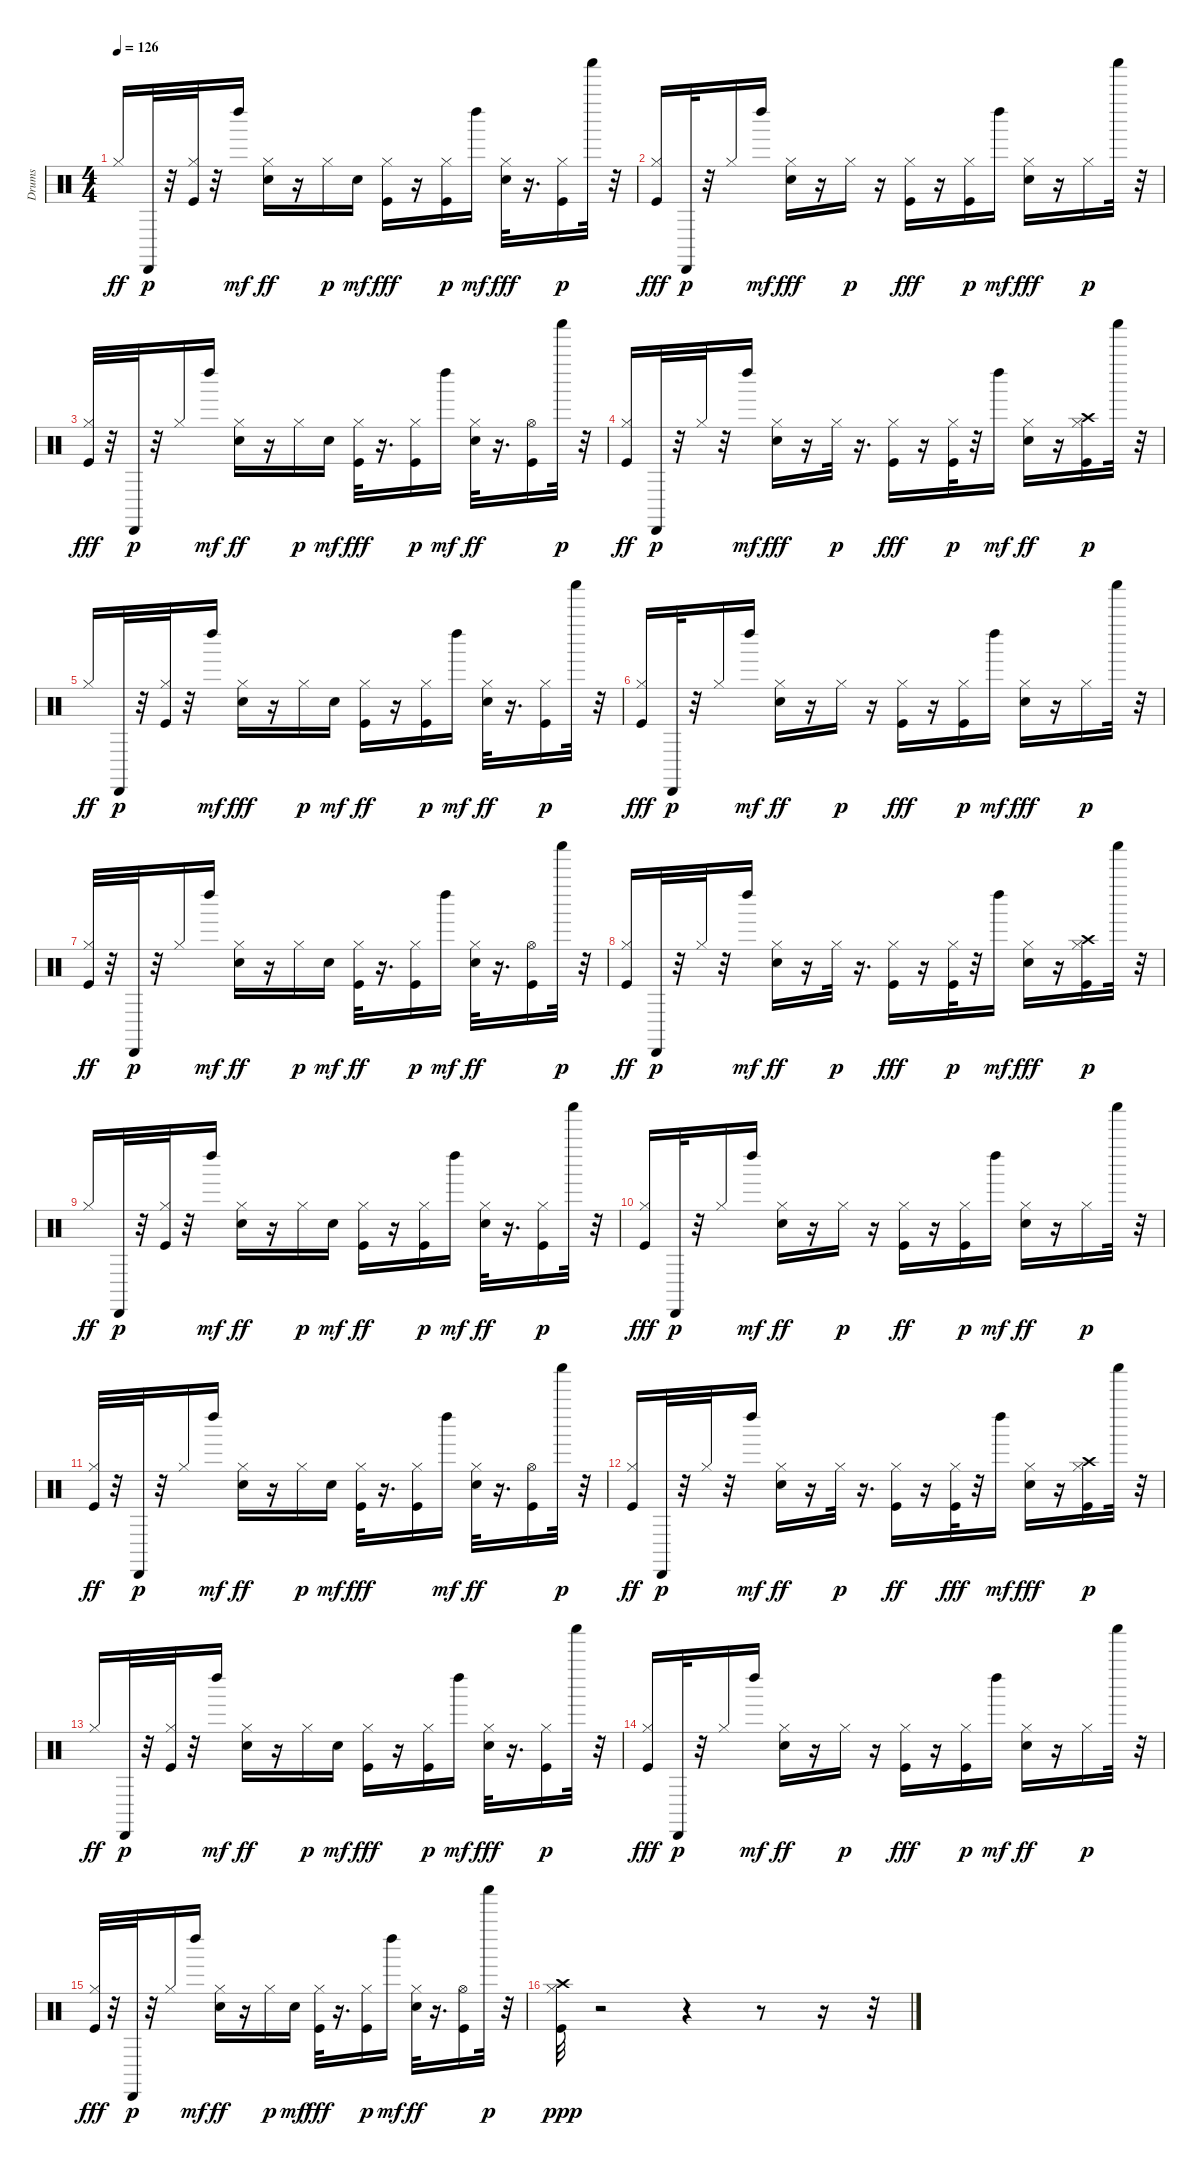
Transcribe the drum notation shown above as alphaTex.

\track ("Drums" "Drums") {instrument percussion}
\staff {score}
\articulation defaults
\ts (4 4)
\tempo 126
\clef neutral
\ks c "Hi-Hat (closed)".16{dy ff} "Cabasa (hit)".32{dy p}
r.32 ("Kick (hit)" "Hi-Hat (closed)").32 r.32 "Left Maraca (hit)".16{dy mf} ("Electric Snare (hit)" "Hi-Hat (closed)").16{dy ff} r.16 "Hi-Hat (closed)".16{dy p} "Electric Snare (hit)".16{dy mf} ("Hi-Hat (closed)" "Kick (hit)").16{dy fff} r.16 ("Kick (hit)" "Hi-Hat (closed)").16{dy p} "Left Maraca (hit)".16{dy mf} ("Hi-Hat (closed)" "Electric Snare (hit)").32{dy fff} r.16{d} ("Kick (hit)" "Hi-Hat (closed)").16{dy p} "Shaker (hit)".32 r.32 |
("Hi-Hat (closed)" "Kick (hit)").16{dy fff} "Cabasa (hit)".32{dy p} r.32 "Hi-Hat (closed)".16 "Left Maraca (hit)".16{dy mf} ("Hi-Hat (closed)" "Electric Snare (hit)").16{dy fff} r.16 "Hi-Hat (closed)".16{dy p} r.16 ("Hi-Hat (closed)" "Kick (hit)").16{dy fff} r.16 ("Kick (hit)" "Hi-Hat (closed)").16{dy p} "Left Maraca (hit)".16{dy mf} ("Hi-Hat (closed)" "Electric Snare (hit)").16{dy fff} r.16 "Hi-Hat (closed)".16{dy p} "Shaker (hit)".32 r.32 |
("Hi-Hat (closed)" "Kick (hit)").32{dy fff} r.32 "Cabasa (hit)".32{dy p} r.32 "Hi-Hat (closed)".16 "Left Maraca (hit)".16{dy mf} ("Electric Snare (hit)" "Hi-Hat (closed)").16{dy ff} r.16 "Hi-Hat (closed)".16{dy p} "Electric Snare (hit)".16{dy mf} ("Hi-Hat (closed)" "Kick (hit)").32{dy fff} r.16{d} ("Kick (hit)" "Hi-Hat (closed)").16{dy p} "Left Maraca (hit)".16{dy mf} ("Electric Snare (hit)" "Hi-Hat (closed)").32{dy ff} r.16{d} ("Kick (hit)" "Hi-Hat (open)").16 "Shaker (hit)".32{dy p} r.32 |
("Kick (hit)" "Hi-Hat (closed)").16{dy ff} "Cabasa (hit)".32{dy p} r.32 "Hi-Hat (closed)".32 r.32 "Left Maraca (hit)".16{dy mf} ("Hi-Hat (closed)" "Electric Snare (hit)").16{dy fff} r.16 "Hi-Hat (closed)".32{dy p} r.16{d} ("Hi-Hat (closed)" "Kick (hit)").16{dy fff} r.16 ("Kick (hit)" "Hi-Hat (closed)").32{dy p} r.32 "Left Maraca (hit)".16{dy mf} ("Electric Snare (hit)" "Hi-Hat (closed)").16{dy ff} r.16 ("Kick (hit)" "Crash high (hit)" "Hi-Hat (closed)").16{dy p} "Shaker (hit)".32 r.32 |
"Hi-Hat (closed)".16{dy ff} "Cabasa (hit)".32{dy p} r.32 ("Kick (hit)" "Hi-Hat (closed)").32 r.32 "Left Maraca (hit)".16{dy mf} ("Hi-Hat (closed)" "Electric Snare (hit)").16{dy fff} r.16 "Hi-Hat (closed)".16{dy p} "Electric Snare (hit)".16{dy mf} ("Kick (hit)" "Hi-Hat (closed)").16{dy ff} r.16 ("Kick (hit)" "Hi-Hat (closed)").16{dy p} "Left Maraca (hit)".16{dy mf} ("Electric Snare (hit)" "Hi-Hat (closed)").32{dy ff} r.16{d} ("Kick (hit)" "Hi-Hat (closed)").16{dy p} "Shaker (hit)".32 r.32 |
("Hi-Hat (closed)" "Kick (hit)").16{dy fff} "Cabasa (hit)".32{dy p} r.32 "Hi-Hat (closed)".16 "Left Maraca (hit)".16{dy mf} ("Electric Snare (hit)" "Hi-Hat (closed)").16{dy ff} r.16 "Hi-Hat (closed)".16{dy p} r.16 ("Hi-Hat (closed)" "Kick (hit)").16{dy fff} r.16 ("Kick (hit)" "Hi-Hat (closed)").16{dy p} "Left Maraca (hit)".16{dy mf} ("Hi-Hat (closed)" "Electric Snare (hit)").16{dy fff} r.16 "Hi-Hat (closed)".16{dy p} "Shaker (hit)".32 r.32 |
("Kick (hit)" "Hi-Hat (closed)").32{dy ff} r.32 "Cabasa (hit)".32{dy p} r.32 "Hi-Hat (closed)".16 "Left Maraca (hit)".16{dy mf} ("Electric Snare (hit)" "Hi-Hat (closed)").16{dy ff} r.16 "Hi-Hat (closed)".16{dy p} "Electric Snare (hit)".16{dy mf} ("Kick (hit)" "Hi-Hat (closed)").32{dy ff} r.16{d} ("Kick (hit)" "Hi-Hat (closed)").16{dy p} "Left Maraca (hit)".16{dy mf} ("Electric Snare (hit)" "Hi-Hat (closed)").32{dy ff} r.16{d} ("Kick (hit)" "Hi-Hat (open)").16 "Shaker (hit)".32{dy p} r.32 |
("Kick (hit)" "Hi-Hat (closed)").16{dy ff} "Cabasa (hit)".32{dy p} r.32 "Hi-Hat (closed)".32 r.32 "Left Maraca (hit)".16{dy mf} ("Electric Snare (hit)" "Hi-Hat (closed)").16{dy ff} r.16 "Hi-Hat (closed)".32{dy p} r.16{d} ("Hi-Hat (closed)" "Kick (hit)").16{dy fff} r.16 ("Kick (hit)" "Hi-Hat (closed)").32{dy p} r.32 "Left Maraca (hit)".16{dy mf} ("Hi-Hat (closed)" "Electric Snare (hit)").16{dy fff} r.16 ("Kick (hit)" "Crash high (hit)" "Hi-Hat (closed)").16{dy p} "Shaker (hit)".32 r.32 |
"Hi-Hat (closed)".16{dy ff} "Cabasa (hit)".32{dy p} r.32 ("Kick (hit)" "Hi-Hat (closed)").32 r.32 "Left Maraca (hit)".16{dy mf} ("Electric Snare (hit)" "Hi-Hat (closed)").16{dy ff} r.16 "Hi-Hat (closed)".16{dy p} "Electric Snare (hit)".16{dy mf} ("Kick (hit)" "Hi-Hat (closed)").16{dy ff} r.16 ("Kick (hit)" "Hi-Hat (closed)").16{dy p} "Left Maraca (hit)".16{dy mf} ("Electric Snare (hit)" "Hi-Hat (closed)").32{dy ff} r.16{d} ("Kick (hit)" "Hi-Hat (closed)").16{dy p} "Shaker (hit)".32 r.32 |
("Hi-Hat (closed)" "Kick (hit)").16{dy fff} "Cabasa (hit)".32{dy p} r.32 "Hi-Hat (closed)".16 "Left Maraca (hit)".16{dy mf} ("Electric Snare (hit)" "Hi-Hat (closed)").16{dy ff} r.16 "Hi-Hat (closed)".16{dy p} r.16 ("Kick (hit)" "Hi-Hat (closed)").16{dy ff} r.16 ("Kick (hit)" "Hi-Hat (closed)").16{dy p} "Left Maraca (hit)".16{dy mf} ("Electric Snare (hit)" "Hi-Hat (closed)").16{dy ff} r.16 "Hi-Hat (closed)".16{dy p} "Shaker (hit)".32 r.32 |
("Kick (hit)" "Hi-Hat (closed)").32{dy ff} r.32 "Cabasa (hit)".32{dy p} r.32 "Hi-Hat (closed)".16 "Left Maraca (hit)".16{dy mf} ("Electric Snare (hit)" "Hi-Hat (closed)").16{dy ff} r.16 "Hi-Hat (closed)".16{dy p} "Electric Snare (hit)".16{dy mf} ("Hi-Hat (closed)" "Kick (hit)").32{dy fff} r.16{d} ("Hi-Hat (closed)" "Kick (hit)").16 "Left Maraca (hit)".16{dy mf} ("Electric Snare (hit)" "Hi-Hat (closed)").32{dy ff} r.16{d} ("Kick (hit)" "Hi-Hat (open)").16 "Shaker (hit)".32{dy p} r.32 |
("Kick (hit)" "Hi-Hat (closed)").16{dy ff} "Cabasa (hit)".32{dy p} r.32 "Hi-Hat (closed)".32 r.32 "Left Maraca (hit)".16{dy mf} ("Electric Snare (hit)" "Hi-Hat (closed)").16{dy ff} r.16 "Hi-Hat (closed)".32{dy p} r.16{d} ("Kick (hit)" "Hi-Hat (closed)").16{dy ff} r.16 ("Hi-Hat (closed)" "Kick (hit)").32{dy fff} r.32 "Left Maraca (hit)".16{dy mf} ("Hi-Hat (closed)" "Electric Snare (hit)").16{dy fff} r.16 ("Crash high (hit)" "Kick (hit)" "Hi-Hat (closed)").16{dy p} "Shaker (hit)".32 r.32 |
"Hi-Hat (closed)".16{dy ff} "Cabasa (hit)".32{dy p} r.32 ("Kick (hit)" "Hi-Hat (closed)").32 r.32 "Left Maraca (hit)".16{dy mf} ("Electric Snare (hit)" "Hi-Hat (closed)").16{dy ff} r.16 "Hi-Hat (closed)".16{dy p} "Electric Snare (hit)".16{dy mf} ("Hi-Hat (closed)" "Kick (hit)").16{dy fff} r.16 ("Kick (hit)" "Hi-Hat (closed)").16{dy p} "Left Maraca (hit)".16{dy mf} ("Hi-Hat (closed)" "Electric Snare (hit)").32{dy fff} r.16{d} ("Kick (hit)" "Hi-Hat (closed)").16{dy p} "Shaker (hit)".32 r.32 |
("Hi-Hat (closed)" "Kick (hit)").16{dy fff} "Cabasa (hit)".32{dy p} r.32 "Hi-Hat (closed)".16 "Left Maraca (hit)".16{dy mf} ("Electric Snare (hit)" "Hi-Hat (closed)").16{dy ff} r.16 "Hi-Hat (closed)".16{dy p} r.16 ("Hi-Hat (closed)" "Kick (hit)").16{dy fff} r.16 ("Kick (hit)" "Hi-Hat (closed)").16{dy p} "Left Maraca (hit)".16{dy mf} ("Electric Snare (hit)" "Hi-Hat (closed)").16{dy ff} r.16 "Hi-Hat (closed)".16{dy p} "Shaker (hit)".32 r.32 |
("Hi-Hat (closed)" "Kick (hit)").32{dy fff} r.32 "Cabasa (hit)".32{dy p} r.32 "Hi-Hat (closed)".16 "Left Maraca (hit)".16{dy mf} ("Electric Snare (hit)" "Hi-Hat (closed)").16{dy ff} r.16 "Hi-Hat (closed)".16{dy p} "Electric Snare (hit)".16{dy mf} ("Hi-Hat (closed)" "Kick (hit)").32{dy fff} r.16{d} ("Kick (hit)" "Hi-Hat (closed)").16{dy p} "Left Maraca (hit)".16{dy mf} ("Electric Snare (hit)" "Hi-Hat (closed)").32{dy ff} r.16{d} ("Kick (hit)" "Hi-Hat (open)").16 "Shaker (hit)".32{dy p} r.32 |
("Kick (hit)" "Crash high (hit)" "Hi-Hat (closed)").32{dy ppp} r.2 r.4 r.8 r.16 r.32
